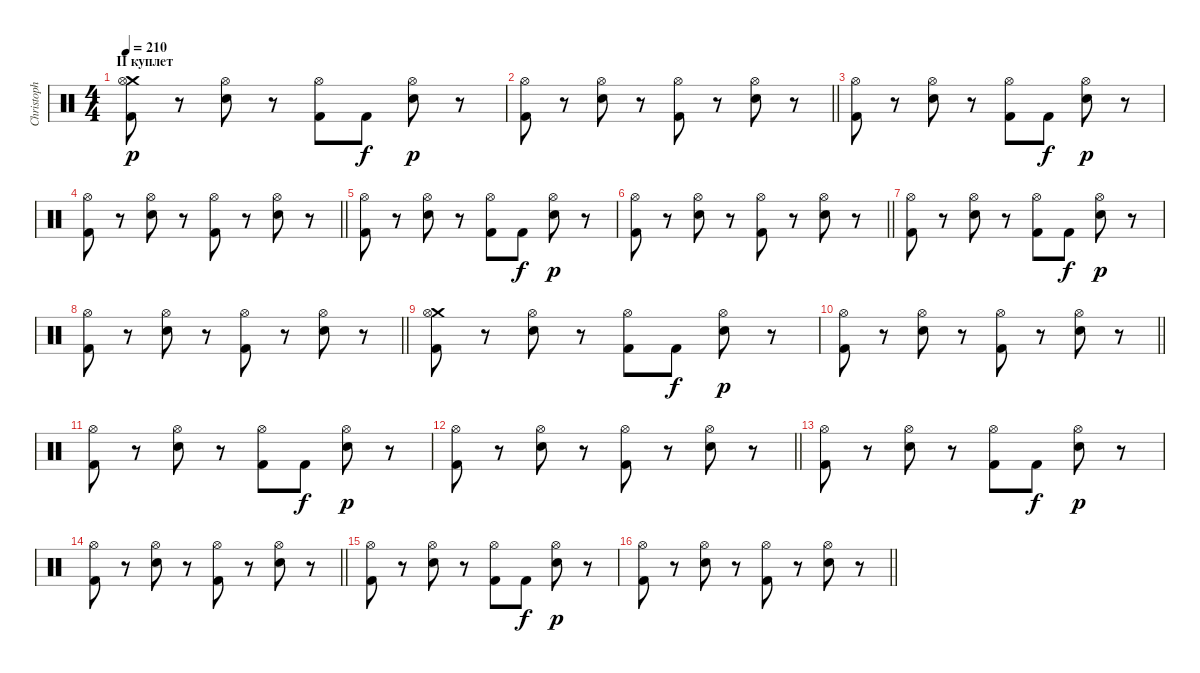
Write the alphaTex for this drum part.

\track ("Christoph Schneider" "Christoph ") {instrument percussion}
\staff {score}
\articulation defaults
\ts (4 4)
\section ("" "II куплет")
\tempo 210
\clef neutral
\ks c
("Crash medium (hit)" "Kick (hit) 2" "Hi-Hat (open)").8{dy p} r.8 ("Hi-Hat (open)" "Electric Snare (hit)").8 r.8 ("Hi-Hat (open)" "Kick (hit) 2").8 "Kick (hit) 2".8{dy f} ("Hi-Hat (open)" "Electric Snare (hit)").8{dy p} r.8 |
\barLineRight lightlight
("Kick (hit) 2" "Hi-Hat (open)").8 r.8 ("Hi-Hat (open)" "Electric Snare (hit)").8 r.8 ("Hi-Hat (open)" "Kick (hit) 2").8 r.8 ("Hi-Hat (open)" "Electric Snare (hit)").8 r.8 |
("Kick (hit) 2" "Hi-Hat (open)").8 r.8 ("Hi-Hat (open)" "Electric Snare (hit)").8 r.8 ("Hi-Hat (open)" "Kick (hit) 2").8 "Kick (hit) 2".8{dy f} ("Hi-Hat (open)" "Electric Snare (hit)").8{dy p} r.8 |
\barLineRight lightlight
("Kick (hit) 2" "Hi-Hat (open)").8 r.8 ("Hi-Hat (open)" "Electric Snare (hit)").8 r.8 ("Hi-Hat (open)" "Kick (hit) 2").8 r.8 ("Hi-Hat (open)" "Electric Snare (hit)").8 r.8 |
("Kick (hit) 2" "Hi-Hat (open)").8 r.8 ("Hi-Hat (open)" "Electric Snare (hit)").8 r.8 ("Hi-Hat (open)" "Kick (hit) 2").8 "Kick (hit) 2".8{dy f} ("Hi-Hat (open)" "Electric Snare (hit)").8{dy p} r.8 |
\barLineRight lightlight
("Kick (hit) 2" "Hi-Hat (open)").8 r.8 ("Hi-Hat (open)" "Electric Snare (hit)").8 r.8 ("Hi-Hat (open)" "Kick (hit) 2").8 r.8 ("Hi-Hat (open)" "Electric Snare (hit)").8 r.8 |
("Kick (hit) 2" "Hi-Hat (open)").8 r.8 ("Hi-Hat (open)" "Electric Snare (hit)").8 r.8 ("Hi-Hat (open)" "Kick (hit) 2").8 "Kick (hit) 2".8{dy f} ("Hi-Hat (open)" "Electric Snare (hit)").8{dy p} r.8 |
\barLineRight lightlight
("Kick (hit) 2" "Hi-Hat (open)").8 r.8 ("Hi-Hat (open)" "Electric Snare (hit)").8 r.8 ("Hi-Hat (open)" "Kick (hit) 2").8 r.8 ("Hi-Hat (open)" "Electric Snare (hit)").8 r.8 |
("Crash medium (hit)" "Kick (hit) 2" "Hi-Hat (open)").8 r.8 ("Hi-Hat (open)" "Electric Snare (hit)").8 r.8 ("Hi-Hat (open)" "Kick (hit) 2").8 "Kick (hit) 2".8{dy f} ("Hi-Hat (open)" "Electric Snare (hit)").8{dy p} r.8 |
\barLineRight lightlight
("Kick (hit) 2" "Hi-Hat (open)").8 r.8 ("Hi-Hat (open)" "Electric Snare (hit)").8 r.8 ("Hi-Hat (open)" "Kick (hit) 2").8 r.8 ("Hi-Hat (open)" "Electric Snare (hit)").8 r.8 |
("Kick (hit) 2" "Hi-Hat (open)").8 r.8 ("Hi-Hat (open)" "Electric Snare (hit)").8 r.8 ("Hi-Hat (open)" "Kick (hit) 2").8 "Kick (hit) 2".8{dy f} ("Hi-Hat (open)" "Electric Snare (hit)").8{dy p} r.8 |
\barLineRight lightlight
("Kick (hit) 2" "Hi-Hat (open)").8 r.8 ("Hi-Hat (open)" "Electric Snare (hit)").8 r.8 ("Hi-Hat (open)" "Kick (hit) 2").8 r.8 ("Hi-Hat (open)" "Electric Snare (hit)").8 r.8 |
("Kick (hit) 2" "Hi-Hat (open)").8 r.8 ("Hi-Hat (open)" "Electric Snare (hit)").8 r.8 ("Hi-Hat (open)" "Kick (hit) 2").8 "Kick (hit) 2".8{dy f} ("Hi-Hat (open)" "Electric Snare (hit)").8{dy p} r.8 |
\barLineRight lightlight
("Kick (hit) 2" "Hi-Hat (open)").8 r.8 ("Hi-Hat (open)" "Electric Snare (hit)").8 r.8 ("Hi-Hat (open)" "Kick (hit) 2").8 r.8 ("Hi-Hat (open)" "Electric Snare (hit)").8 r.8 |
("Kick (hit) 2" "Hi-Hat (open)").8 r.8 ("Hi-Hat (open)" "Electric Snare (hit)").8 r.8 ("Hi-Hat (open)" "Kick (hit) 2").8 "Kick (hit) 2".8{dy f} ("Hi-Hat (open)" "Electric Snare (hit)").8{dy p} r.8 |
\barLineRight lightlight
("Kick (hit) 2" "Hi-Hat (open)").8 r.8 ("Hi-Hat (open)" "Electric Snare (hit)").8 r.8 ("Hi-Hat (open)" "Kick (hit) 2").8 r.8 ("Hi-Hat (open)" "Electric Snare (hit)").8 r.8
